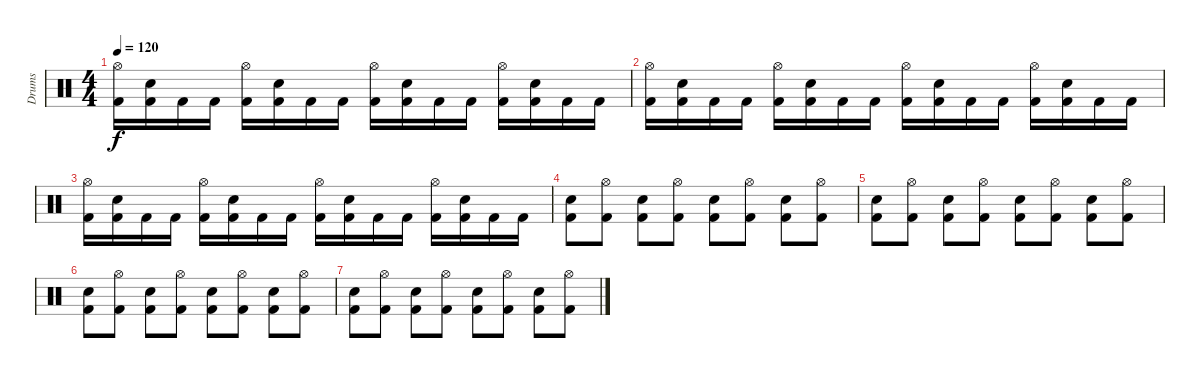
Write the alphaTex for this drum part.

\track ("Drums" "Drums") {instrument percussion}
\staff {score}
\articulation defaults
\ts (4 4)
\tempo 120
\clef neutral
\ks c
("Hi-Hat (open)" "Kick (hit) 2").16{dy f} ("Snare (hit) 2" "Kick (hit) 2").16 "Kick (hit) 2".16 "Kick (hit) 2".16 ("Hi-Hat (open)" "Kick (hit) 2").16 ("Snare (hit) 2" "Kick (hit) 2").16 "Kick (hit) 2".16 "Kick (hit) 2".16 ("Hi-Hat (open)" "Kick (hit) 2").16 ("Snare (hit) 2" "Kick (hit) 2").16 "Kick (hit) 2".16 "Kick (hit) 2".16 ("Hi-Hat (open)" "Kick (hit) 2").16 ("Snare (hit) 2" "Kick (hit) 2").16 "Kick (hit) 2".16 "Kick (hit) 2".16 |
("Hi-Hat (open)" "Kick (hit) 2").16 ("Snare (hit) 2" "Kick (hit) 2").16 "Kick (hit) 2".16 "Kick (hit) 2".16 ("Hi-Hat (open)" "Kick (hit) 2").16 ("Snare (hit) 2" "Kick (hit) 2").16 "Kick (hit) 2".16 "Kick (hit) 2".16 ("Hi-Hat (open)" "Kick (hit) 2").16 ("Snare (hit) 2" "Kick (hit) 2").16 "Kick (hit) 2".16 "Kick (hit) 2".16 ("Hi-Hat (open)" "Kick (hit) 2").16 ("Snare (hit) 2" "Kick (hit) 2").16 "Kick (hit) 2".16 "Kick (hit) 2".16 |
("Hi-Hat (open)" "Kick (hit) 2").16 ("Snare (hit) 2" "Kick (hit) 2").16 "Kick (hit) 2".16 "Kick (hit) 2".16 ("Hi-Hat (open)" "Kick (hit) 2").16 ("Snare (hit) 2" "Kick (hit) 2").16 "Kick (hit) 2".16 "Kick (hit) 2".16 ("Hi-Hat (open)" "Kick (hit) 2").16 ("Snare (hit) 2" "Kick (hit) 2").16 "Kick (hit) 2".16 "Kick (hit) 2".16 ("Hi-Hat (open)" "Kick (hit) 2").16 ("Snare (hit) 2" "Kick (hit) 2").16 "Kick (hit) 2".16 "Kick (hit) 2".16 |
("Snare (hit) 2" "Kick (hit) 2").8 ("Hi-Hat (open)" "Kick (hit) 2").8 ("Snare (hit) 2" "Kick (hit) 2").8 ("Hi-Hat (open)" "Kick (hit) 2").8 ("Snare (hit) 2" "Kick (hit) 2").8 ("Hi-Hat (open)" "Kick (hit) 2").8 ("Snare (hit) 2" "Kick (hit) 2").8 ("Hi-Hat (open)" "Kick (hit) 2").8 |
("Snare (hit) 2" "Kick (hit) 2").8 ("Hi-Hat (open)" "Kick (hit) 2").8 ("Snare (hit) 2" "Kick (hit) 2").8 ("Hi-Hat (open)" "Kick (hit) 2").8 ("Snare (hit) 2" "Kick (hit) 2").8 ("Hi-Hat (open)" "Kick (hit) 2").8 ("Snare (hit) 2" "Kick (hit) 2").8 ("Hi-Hat (open)" "Kick (hit) 2").8 |
("Snare (hit) 2" "Kick (hit) 2").8 ("Hi-Hat (open)" "Kick (hit) 2").8 ("Snare (hit) 2" "Kick (hit) 2").8 ("Hi-Hat (open)" "Kick (hit) 2").8 ("Snare (hit) 2" "Kick (hit) 2").8 ("Hi-Hat (open)" "Kick (hit) 2").8 ("Snare (hit) 2" "Kick (hit) 2").8 ("Hi-Hat (open)" "Kick (hit) 2").8 |
("Snare (hit) 2" "Kick (hit) 2").8 ("Hi-Hat (open)" "Kick (hit) 2").8 ("Snare (hit) 2" "Kick (hit) 2").8 ("Hi-Hat (open)" "Kick (hit) 2").8 ("Snare (hit) 2" "Kick (hit) 2").8 ("Hi-Hat (open)" "Kick (hit) 2").8 ("Snare (hit) 2" "Kick (hit) 2").8 ("Hi-Hat (open)" "Kick (hit) 2").8
